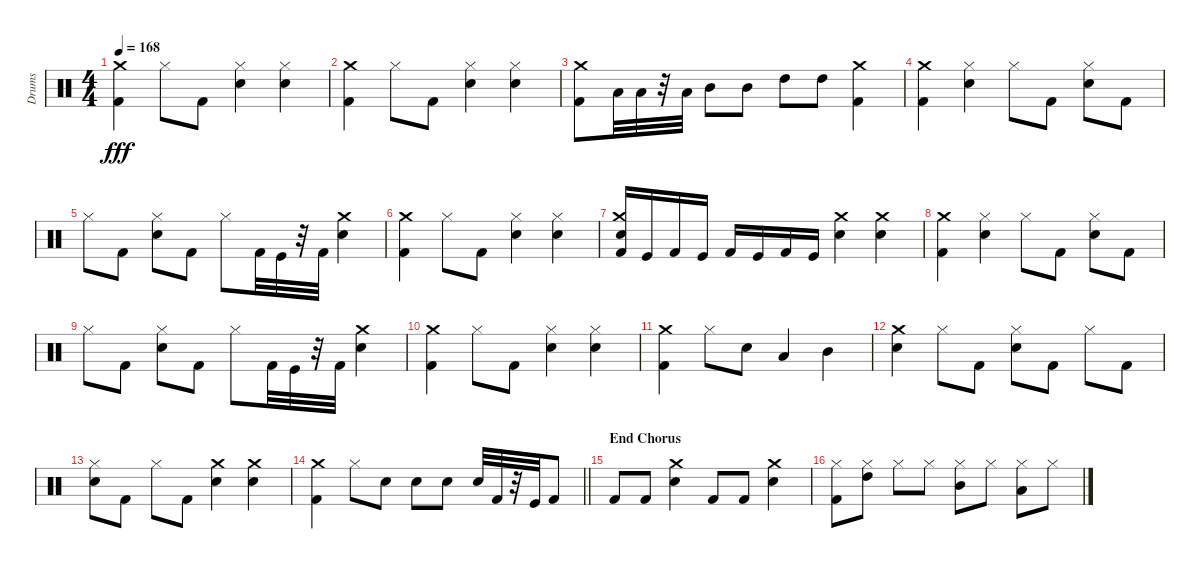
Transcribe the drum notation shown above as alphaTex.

\track ("Drums" "Drums") {instrument percussion}
\staff {score}
\articulation defaults
\ts (4 4)
\tempo 168
\clef neutral
\ks c
("Kick (hit) 2" "Crash medium (hit)").4{dy fff} "Hi-Hat (closed)".8 "Kick (hit) 2".8 ("Snare (hit) 2" "Hi-Hat (closed)").4 ("Hi-Hat (closed)" "Snare (hit) 2").4 |
("Kick (hit) 2" "Crash medium (hit)").4 "Hi-Hat (closed)".8 "Kick (hit) 2".8 ("Snare (hit) 2" "Hi-Hat (closed)").4 ("Hi-Hat (closed)" "Snare (hit) 2").4 |
("Kick (hit) 2" "Crash medium (hit)").8 "Low Tom (hit)".32 "Low Tom (hit)".32 r.32 "Low Tom (hit)".32 "Mid Tom (hit)".8 "Mid Tom (hit)".8 "High Tom (hit)".8 "High Tom (hit)".8 ("Crash medium (hit)" "Kick (hit) 2").4 |
("Kick (hit) 2" "Crash medium (hit)").4 ("Hi-Hat (closed)" "Snare (hit) 2").4 "Hi-Hat (closed)".8 "Kick (hit) 2".8 ("Snare (hit) 2" "Hi-Hat (closed)").8 "Kick (hit) 2".8 |
"Hi-Hat (closed)".8 "Kick (hit) 2".8 ("Snare (hit) 2" "Hi-Hat (closed)").8 "Kick (hit) 2".8 "Hi-Hat (closed)".8 "Kick (hit) 2".32 "Kick (hit)".32 r.32 "Kick (hit) 2".32 ("Crash medium (hit)" "Snare (hit) 2").4 |
("Kick (hit) 2" "Crash medium (hit)").4 "Hi-Hat (closed)".8 "Kick (hit) 2".8 ("Snare (hit) 2" "Hi-Hat (closed)").4 ("Hi-Hat (closed)" "Snare (hit) 2").4 |
("Kick (hit) 2" "Snare (hit) 2" "Crash medium (hit)").16 "Kick (hit)".16 "Kick (hit) 2".16 "Kick (hit)".16 "Kick (hit) 2".16 "Kick (hit)".16 "Kick (hit) 2".16 "Kick (hit)".16 ("Crash medium (hit)" "Snare (hit) 2").4 ("Crash medium (hit)" "Snare (hit) 2").4 |
("Kick (hit) 2" "Crash medium (hit)").4 ("Hi-Hat (closed)" "Snare (hit) 2").4 "Hi-Hat (closed)".8 "Kick (hit) 2".8 ("Snare (hit) 2" "Hi-Hat (closed)").8 "Kick (hit) 2".8 |
"Hi-Hat (closed)".8 "Kick (hit) 2".8 ("Snare (hit) 2" "Hi-Hat (closed)").8 "Kick (hit) 2".8 "Hi-Hat (closed)".8 "Kick (hit) 2".32 "Kick (hit)".32 r.32 "Kick (hit) 2".32 ("Crash medium (hit)" "Snare (hit) 2").4 |
("Kick (hit) 2" "Crash medium (hit)").4 "Hi-Hat (closed)".8 "Kick (hit) 2".8 ("Snare (hit) 2" "Hi-Hat (closed)").4 ("Hi-Hat (closed)" "Snare (hit) 2").4 |
("Kick (hit) 2" "Crash medium (hit)").4 "Hi-Hat (closed)".8 "Snare (hit) 2".8 "Low Tom (hit)".4 "Mid Tom (hit)".4 |
("Snare (hit) 2" "Crash medium (hit)").4 "Hi-Hat (closed)".8 "Kick (hit) 2".8 ("Snare (hit) 2" "Hi-Hat (closed)").8 "Kick (hit) 2".8 "Hi-Hat (closed)".8 "Kick (hit) 2".8 |
("Hi-Hat (closed)" "Snare (hit) 2").8 "Kick (hit) 2".8 "Hi-Hat (closed)".8 "Kick (hit) 2".8 ("Crash medium (hit)" "Snare (hit) 2").4 ("Crash medium (hit)" "Snare (hit) 2").4 |
\barLineRight lightlight
("Kick (hit) 2" "Crash medium (hit)").4 "Hi-Hat (closed)".8 "Snare (hit) 2".8 "Snare (hit) 2".8 "Snare (hit) 2".8 "Snare (hit) 2".32 "Kick (hit) 2".32 r.32 "Kick (hit)".32 "Kick (hit) 2".8 |
\section ("" "End Chorus")
"Kick (hit) 2".8 "Kick (hit) 2".8 ("Snare (hit) 2" "Crash medium (hit)").4 "Kick (hit) 2".8 "Kick (hit) 2".8 ("Crash medium (hit)" "Snare (hit) 2").4 |
("Hi-Hat (closed)" "Kick (hit) 2").8 ("High Tom (hit)" "Hi-Hat (closed)").8{balance 16} "Hi-Hat (closed)".8{balance 8} "Hi-Hat (closed)".8 ("Mid Tom (hit)" "Hi-Hat (closed)").8 "Hi-Hat (closed)".8 ("Low Tom (hit)" "Hi-Hat (closed)").8{balance 0} "Hi-Hat (closed)".8{balance 8}
